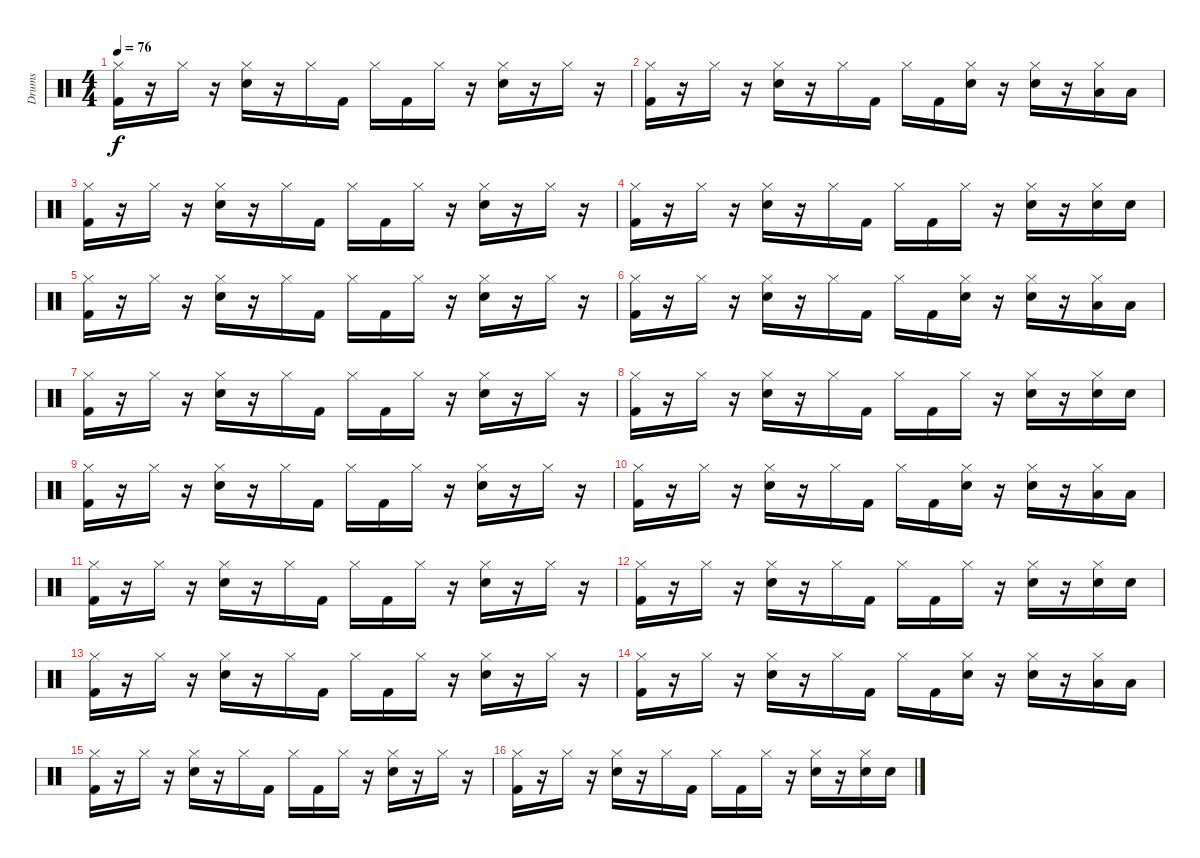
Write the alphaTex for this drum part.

\track ("Drums" "Drums") {instrument percussion}
\staff {score}
\articulation defaults
\ts (4 4)
\tempo 76
\clef neutral
\ks c
("Kick (hit) 2" "Hi-Hat (closed)").16{dy f} r.16 "Hi-Hat (closed)".16 r.16 ("Snare (hit) 2" "Hi-Hat (closed)").16 r.16 "Hi-Hat (closed)".16 "Kick (hit) 2".16 "Hi-Hat (closed)".16 "Kick (hit) 2".16 "Hi-Hat (closed)".16 r.16 ("Snare (hit) 2" "Hi-Hat (closed)").16 r.16 "Hi-Hat (closed)".16 r.16 |
("Kick (hit) 2" "Hi-Hat (closed)").16 r.16 "Hi-Hat (closed)".16 r.16 ("Snare (hit) 2" "Hi-Hat (closed)").16 r.16 "Hi-Hat (closed)".16 "Kick (hit) 2".16 "Hi-Hat (closed)".16 "Kick (hit) 2".16 ("Snare (hit) 2" "Hi-Hat (closed)").16 r.16 ("Snare (hit) 2" "Hi-Hat (closed)").16 r.16 ("Low Tom (hit)" "Hi-Hat (closed)").16 "Low Tom (hit)".16 |
("Kick (hit) 2" "Hi-Hat (closed)").16 r.16 "Hi-Hat (closed)".16 r.16 ("Snare (hit) 2" "Hi-Hat (closed)").16 r.16 "Hi-Hat (closed)".16 "Kick (hit) 2".16 "Hi-Hat (closed)".16 "Kick (hit) 2".16 "Hi-Hat (closed)".16 r.16 ("Snare (hit) 2" "Hi-Hat (closed)").16 r.16 "Hi-Hat (closed)".16 r.16 |
("Kick (hit) 2" "Hi-Hat (closed)").16 r.16 "Hi-Hat (closed)".16 r.16 ("Snare (hit) 2" "Hi-Hat (closed)").16 r.16 "Hi-Hat (closed)".16 "Kick (hit) 2".16 "Hi-Hat (closed)".16 "Kick (hit) 2".16 "Hi-Hat (closed)".16 r.16 ("Snare (hit) 2" "Hi-Hat (closed)").16 r.16 ("Snare (hit) 2" "Hi-Hat (closed)").16 "Snare (hit) 2".16 |
("Kick (hit) 2" "Hi-Hat (closed)").16 r.16 "Hi-Hat (closed)".16 r.16 ("Snare (hit) 2" "Hi-Hat (closed)").16 r.16 "Hi-Hat (closed)".16 "Kick (hit) 2".16 "Hi-Hat (closed)".16 "Kick (hit) 2".16 "Hi-Hat (closed)".16 r.16 ("Snare (hit) 2" "Hi-Hat (closed)").16 r.16 "Hi-Hat (closed)".16 r.16 |
("Kick (hit) 2" "Hi-Hat (closed)").16 r.16 "Hi-Hat (closed)".16 r.16 ("Snare (hit) 2" "Hi-Hat (closed)").16 r.16 "Hi-Hat (closed)".16 "Kick (hit) 2".16 "Hi-Hat (closed)".16 "Kick (hit) 2".16 ("Snare (hit) 2" "Hi-Hat (closed)").16 r.16 ("Snare (hit) 2" "Hi-Hat (closed)").16 r.16 ("Low Tom (hit)" "Hi-Hat (closed)").16 "Low Tom (hit)".16 |
("Kick (hit) 2" "Hi-Hat (closed)").16 r.16 "Hi-Hat (closed)".16 r.16 ("Snare (hit) 2" "Hi-Hat (closed)").16 r.16 "Hi-Hat (closed)".16 "Kick (hit) 2".16 "Hi-Hat (closed)".16 "Kick (hit) 2".16 "Hi-Hat (closed)".16 r.16 ("Snare (hit) 2" "Hi-Hat (closed)").16 r.16 "Hi-Hat (closed)".16 r.16 |
("Kick (hit) 2" "Hi-Hat (closed)").16 r.16 "Hi-Hat (closed)".16 r.16 ("Snare (hit) 2" "Hi-Hat (closed)").16 r.16 "Hi-Hat (closed)".16 "Kick (hit) 2".16 "Hi-Hat (closed)".16 "Kick (hit) 2".16 "Hi-Hat (closed)".16 r.16 ("Snare (hit) 2" "Hi-Hat (closed)").16 r.16 ("Snare (hit) 2" "Hi-Hat (closed)").16 "Snare (hit) 2".16 |
("Kick (hit) 2" "Hi-Hat (closed)").16 r.16 "Hi-Hat (closed)".16 r.16 ("Snare (hit) 2" "Hi-Hat (closed)").16 r.16 "Hi-Hat (closed)".16 "Kick (hit) 2".16 "Hi-Hat (closed)".16 "Kick (hit) 2".16 "Hi-Hat (closed)".16 r.16 ("Snare (hit) 2" "Hi-Hat (closed)").16 r.16 "Hi-Hat (closed)".16 r.16 |
("Kick (hit) 2" "Hi-Hat (closed)").16 r.16 "Hi-Hat (closed)".16 r.16 ("Snare (hit) 2" "Hi-Hat (closed)").16 r.16 "Hi-Hat (closed)".16 "Kick (hit) 2".16 "Hi-Hat (closed)".16 "Kick (hit) 2".16 ("Snare (hit) 2" "Hi-Hat (closed)").16 r.16 ("Snare (hit) 2" "Hi-Hat (closed)").16 r.16 ("Low Tom (hit)" "Hi-Hat (closed)").16 "Low Tom (hit)".16 |
("Kick (hit) 2" "Hi-Hat (closed)").16 r.16 "Hi-Hat (closed)".16 r.16 ("Snare (hit) 2" "Hi-Hat (closed)").16 r.16 "Hi-Hat (closed)".16 "Kick (hit) 2".16 "Hi-Hat (closed)".16 "Kick (hit) 2".16 "Hi-Hat (closed)".16 r.16 ("Snare (hit) 2" "Hi-Hat (closed)").16 r.16 "Hi-Hat (closed)".16 r.16 |
("Kick (hit) 2" "Hi-Hat (closed)").16 r.16 "Hi-Hat (closed)".16 r.16 ("Snare (hit) 2" "Hi-Hat (closed)").16 r.16 "Hi-Hat (closed)".16 "Kick (hit) 2".16 "Hi-Hat (closed)".16 "Kick (hit) 2".16 "Hi-Hat (closed)".16 r.16 ("Snare (hit) 2" "Hi-Hat (closed)").16 r.16 ("Snare (hit) 2" "Hi-Hat (closed)").16 "Snare (hit) 2".16 |
("Kick (hit) 2" "Hi-Hat (closed)").16 r.16 "Hi-Hat (closed)".16 r.16 ("Snare (hit) 2" "Hi-Hat (closed)").16 r.16 "Hi-Hat (closed)".16 "Kick (hit) 2".16 "Hi-Hat (closed)".16 "Kick (hit) 2".16 "Hi-Hat (closed)".16 r.16 ("Snare (hit) 2" "Hi-Hat (closed)").16 r.16 "Hi-Hat (closed)".16 r.16 |
("Kick (hit) 2" "Hi-Hat (closed)").16 r.16 "Hi-Hat (closed)".16 r.16 ("Snare (hit) 2" "Hi-Hat (closed)").16 r.16 "Hi-Hat (closed)".16 "Kick (hit) 2".16 "Hi-Hat (closed)".16 "Kick (hit) 2".16 ("Snare (hit) 2" "Hi-Hat (closed)").16 r.16 ("Snare (hit) 2" "Hi-Hat (closed)").16 r.16 ("Low Tom (hit)" "Hi-Hat (closed)").16 "Low Tom (hit)".16 |
("Kick (hit) 2" "Hi-Hat (closed)").16 r.16 "Hi-Hat (closed)".16 r.16 ("Snare (hit) 2" "Hi-Hat (closed)").16 r.16 "Hi-Hat (closed)".16 "Kick (hit) 2".16 "Hi-Hat (closed)".16 "Kick (hit) 2".16 "Hi-Hat (closed)".16 r.16 ("Snare (hit) 2" "Hi-Hat (closed)").16 r.16 "Hi-Hat (closed)".16 r.16 |
("Kick (hit) 2" "Hi-Hat (closed)").16 r.16 "Hi-Hat (closed)".16 r.16 ("Snare (hit) 2" "Hi-Hat (closed)").16 r.16 "Hi-Hat (closed)".16 "Kick (hit) 2".16 "Hi-Hat (closed)".16 "Kick (hit) 2".16 "Hi-Hat (closed)".16 r.16 ("Snare (hit) 2" "Hi-Hat (closed)").16 r.16 ("Snare (hit) 2" "Hi-Hat (closed)").16 "Snare (hit) 2".16
